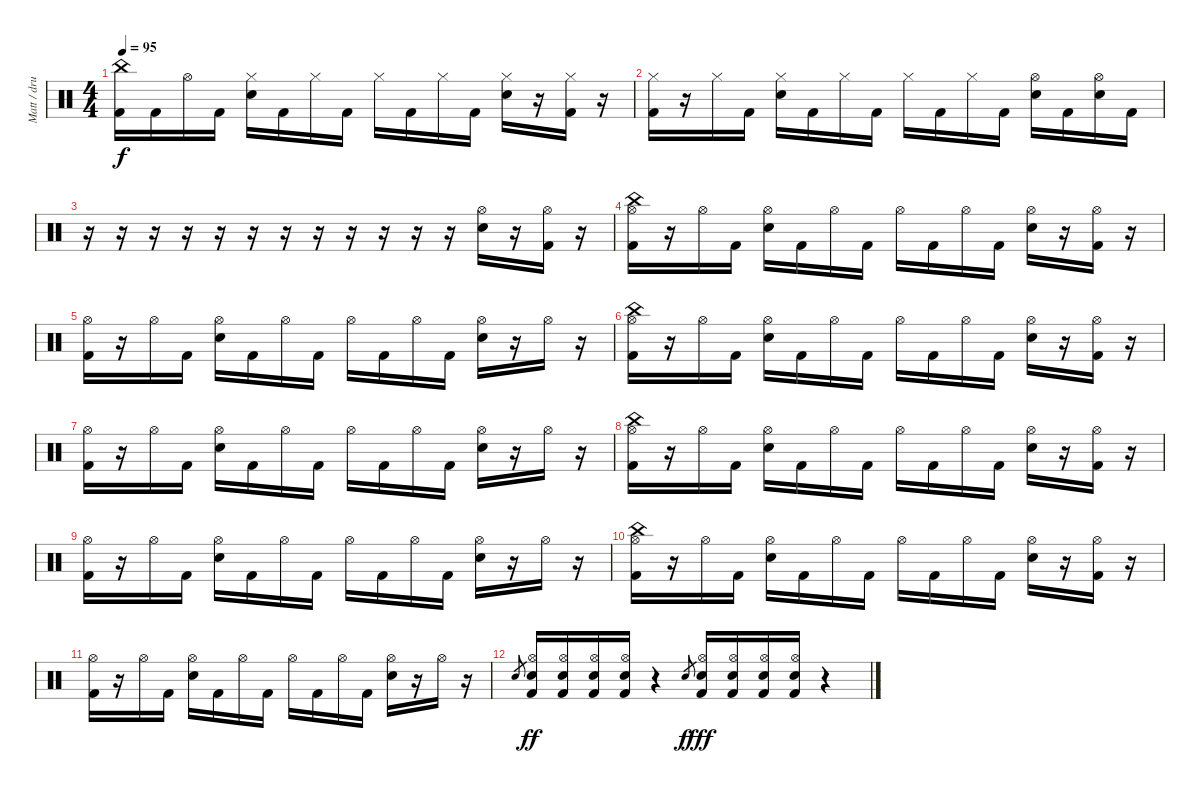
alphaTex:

\track ("Matt / drums" "Matt / dru") {instrument percussion}
\staff {score}
\articulation defaults
\ts (4 4)
\tempo 95
\clef neutral
\ks c
("China (hit)" "Kick (hit) 2").16{dy f} "Kick (hit) 2".16 "Hi-Hat (open)".16 "Kick (hit) 2".16 ("Hi-Hat (closed)" "Snare (hit) 2").16 "Kick (hit) 2".16 "Hi-Hat (closed)".16 "Kick (hit) 2".16 "Hi-Hat (closed)".16 "Kick (hit) 2".16 "Hi-Hat (closed)".16 "Kick (hit) 2".16 ("Hi-Hat (closed)" "Snare (hit) 2").16 r.16 ("Hi-Hat (closed)" "Kick (hit) 2").16 r.16 |
("Hi-Hat (closed)" "Kick (hit) 2").16 r.16 "Hi-Hat (closed)".16 "Kick (hit) 2".16 ("Hi-Hat (closed)" "Snare (hit) 2").16 "Kick (hit) 2".16 "Hi-Hat (closed)".16 "Kick (hit) 2".16 "Hi-Hat (closed)".16 "Kick (hit) 2".16 "Hi-Hat (closed)".16 "Kick (hit) 2".16 ("Hi-Hat (open)" "Snare (hit) 2").16 "Kick (hit) 2".16 ("Hi-Hat (open)" "Snare (hit) 2").16 "Kick (hit) 2".16 |
r.16 r.16 r.16 r.16 r.16 r.16 r.16 r.16 r.16 r.16 r.16 r.16 ("Hi-Hat (open)" "Snare (hit) 2").16 r.16 ("Hi-Hat (open)" "Kick (hit) 2").16 r.16 |
("China (hit)" "Hi-Hat (open)" "Kick (hit) 2").16{volume 13} r.16 "Hi-Hat (open)".16 "Kick (hit) 2".16 ("Hi-Hat (open)" "Snare (hit) 2").16 "Kick (hit) 2".16 "Hi-Hat (open)".16 "Kick (hit) 2".16 "Hi-Hat (open)".16 "Kick (hit) 2".16 "Hi-Hat (open)".16 "Kick (hit) 2".16 ("Hi-Hat (open)" "Snare (hit) 2").16 r.16 ("Hi-Hat (open)" "Kick (hit) 2").16 r.16 |
("Hi-Hat (open)" "Kick (hit) 2").16 r.16 "Hi-Hat (open)".16 "Kick (hit) 2".16 ("Hi-Hat (open)" "Snare (hit) 2").16 "Kick (hit) 2".16 "Hi-Hat (open)".16 "Kick (hit) 2".16 "Hi-Hat (open)".16 "Kick (hit) 2".16 "Hi-Hat (open)".16 "Kick (hit) 2".16 ("Hi-Hat (open)" "Snare (hit) 2").16 r.16 "Hi-Hat (open)".16 r.16 |
("China (hit)" "Hi-Hat (open)" "Kick (hit) 2").16 r.16 "Hi-Hat (open)".16 "Kick (hit) 2".16 ("Hi-Hat (open)" "Snare (hit) 2").16 "Kick (hit) 2".16 "Hi-Hat (open)".16 "Kick (hit) 2".16 "Hi-Hat (open)".16 "Kick (hit) 2".16 "Hi-Hat (open)".16 "Kick (hit) 2".16 ("Hi-Hat (open)" "Snare (hit) 2").16 r.16 ("Hi-Hat (open)" "Kick (hit) 2").16 r.16 |
("Hi-Hat (open)" "Kick (hit) 2").16 r.16 "Hi-Hat (open)".16 "Kick (hit) 2".16 ("Hi-Hat (open)" "Snare (hit) 2").16 "Kick (hit) 2".16 "Hi-Hat (open)".16 "Kick (hit) 2".16 "Hi-Hat (open)".16 "Kick (hit) 2".16 "Hi-Hat (open)".16 "Kick (hit) 2".16 ("Hi-Hat (open)" "Snare (hit) 2").16 r.16 "Hi-Hat (open)".16 r.16 |
("China (hit)" "Hi-Hat (open)" "Kick (hit) 2").16{volume 13} r.16 "Hi-Hat (open)".16 "Kick (hit) 2".16 ("Hi-Hat (open)" "Snare (hit) 2").16 "Kick (hit) 2".16 "Hi-Hat (open)".16 "Kick (hit) 2".16 "Hi-Hat (open)".16 "Kick (hit) 2".16 "Hi-Hat (open)".16 "Kick (hit) 2".16 ("Hi-Hat (open)" "Snare (hit) 2").16 r.16 ("Hi-Hat (open)" "Kick (hit) 2").16 r.16 |
("Hi-Hat (open)" "Kick (hit) 2").16 r.16 "Hi-Hat (open)".16 "Kick (hit) 2".16 ("Hi-Hat (open)" "Snare (hit) 2").16 "Kick (hit) 2".16 "Hi-Hat (open)".16 "Kick (hit) 2".16 "Hi-Hat (open)".16 "Kick (hit) 2".16 "Hi-Hat (open)".16 "Kick (hit) 2".16 ("Hi-Hat (open)" "Snare (hit) 2").16 r.16 "Hi-Hat (open)".16 r.16 |
("China (hit)" "Hi-Hat (open)" "Kick (hit) 2").16 r.16 "Hi-Hat (open)".16 "Kick (hit) 2".16 ("Hi-Hat (open)" "Snare (hit) 2").16 "Kick (hit) 2".16 "Hi-Hat (open)".16 "Kick (hit) 2".16 "Hi-Hat (open)".16 "Kick (hit) 2".16 "Hi-Hat (open)".16 "Kick (hit) 2".16 ("Hi-Hat (open)" "Snare (hit) 2").16 r.16 ("Hi-Hat (open)" "Kick (hit) 2").16 r.16 |
("Hi-Hat (open)" "Kick (hit) 2").16 r.16 "Hi-Hat (open)".16 "Kick (hit) 2".16 ("Hi-Hat (open)" "Snare (hit) 2").16 "Kick (hit) 2".16 "Hi-Hat (open)".16 "Kick (hit) 2".16 "Hi-Hat (open)".16 "Kick (hit) 2".16 "Hi-Hat (open)".16 "Kick (hit) 2".16 ("Hi-Hat (open)" "Snare (hit) 2").16 r.16 "Hi-Hat (open)".16 r.16 |
"Snare (hit) 2".8{gr} ("Hi-Hat (open)" "Snare (hit) 2" "Kick (hit) 2").16{dy ff volume 15} ("Hi-Hat (open)" "Snare (hit) 2" "Kick (hit) 2").16 ("Hi-Hat (open)" "Snare (hit) 2" "Kick (hit) 2").16 ("Hi-Hat (open)" "Snare (hit) 2" "Kick (hit) 2").16 r.4 "Snare (hit) 2".8{gr dy f} ("Hi-Hat (open)" "Snare (hit) 2" "Kick (hit) 2").16{dy fff} ("Hi-Hat (open)" "Snare (hit) 2" "Kick (hit) 2").16 ("Hi-Hat (open)" "Snare (hit) 2" "Kick (hit) 2").16 ("Hi-Hat (open)" "Snare (hit) 2" "Kick (hit) 2").16 r.4
